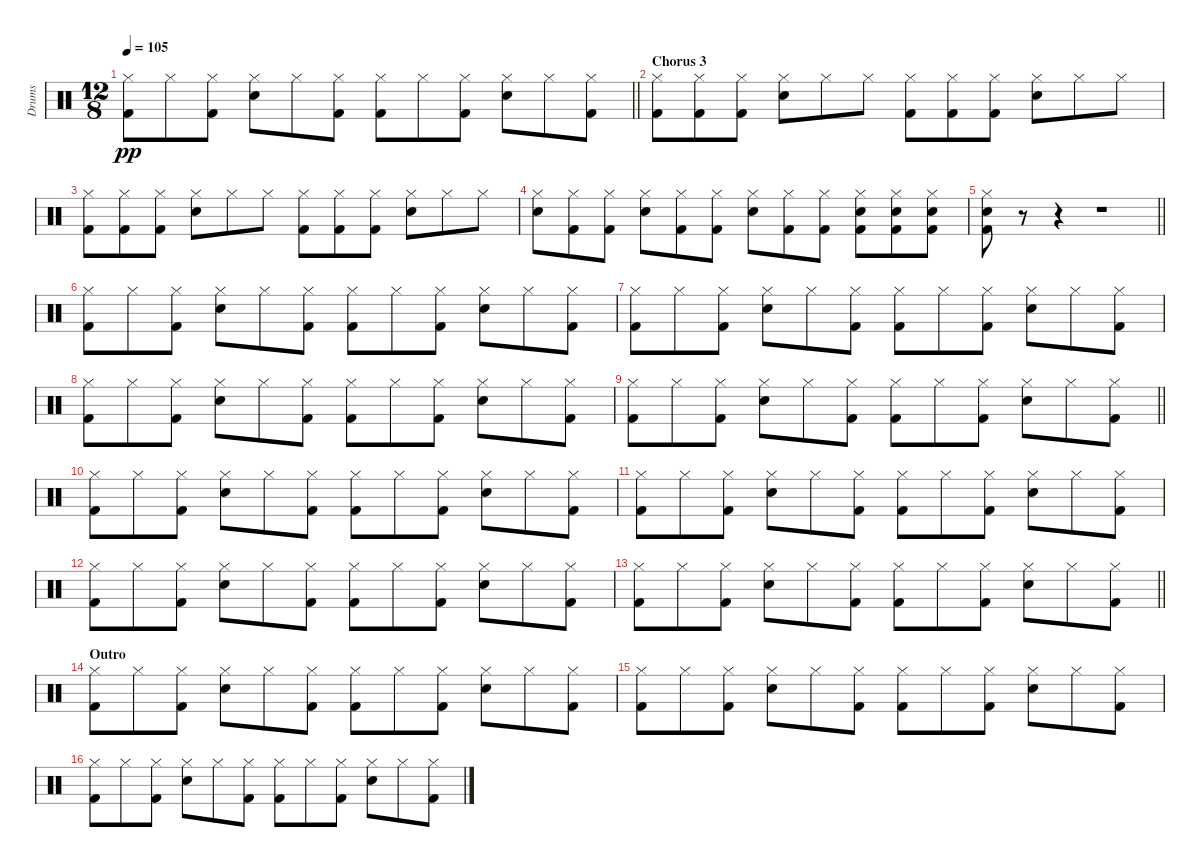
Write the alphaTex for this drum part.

\track ("Drums" "Drums") {instrument percussion}
\staff
\articulation defaults
\ts (12 8)
\tempo 105
\clef neutral
\barLineRight lightlight
\ks c
("Hi-Hat (closed)" "Kick (hit) 2").8{dy pp} "Hi-Hat (closed)".8 ("Hi-Hat (closed)" "Kick (hit) 2").8 ("Hi-Hat (closed)" "Snare (hit) 2").8 "Hi-Hat (closed)".8 ("Hi-Hat (closed)" "Kick (hit) 2").8 ("Hi-Hat (closed)" "Kick (hit) 2").8 "Hi-Hat (closed)".8 ("Hi-Hat (closed)" "Kick (hit) 2").8 ("Hi-Hat (closed)" "Snare (hit) 2").8 "Hi-Hat (closed)".8 ("Hi-Hat (closed)" "Kick (hit) 2").8 |
\section ("" "Chorus 3")
("Hi-Hat (closed)" "Kick (hit) 2").8 ("Hi-Hat (closed)" "Kick (hit) 2").8 ("Hi-Hat (closed)" "Kick (hit) 2").8 ("Hi-Hat (closed)" "Snare (hit) 2").8 "Hi-Hat (closed)".8 "Hi-Hat (closed)".8 ("Hi-Hat (closed)" "Kick (hit) 2").8 ("Hi-Hat (closed)" "Kick (hit) 2").8 ("Hi-Hat (closed)" "Kick (hit) 2").8 ("Hi-Hat (closed)" "Snare (hit) 2").8 "Hi-Hat (closed)".8 "Hi-Hat (closed)".8 |
("Hi-Hat (closed)" "Kick (hit) 2").8 ("Hi-Hat (closed)" "Kick (hit) 2").8 ("Hi-Hat (closed)" "Kick (hit) 2").8 ("Hi-Hat (closed)" "Snare (hit) 2").8 "Hi-Hat (closed)".8 "Hi-Hat (closed)".8 ("Hi-Hat (closed)" "Kick (hit) 2").8 ("Hi-Hat (closed)" "Kick (hit) 2").8 ("Hi-Hat (closed)" "Kick (hit) 2").8 ("Hi-Hat (closed)" "Snare (hit) 2").8 "Hi-Hat (closed)".8 "Hi-Hat (closed)".8 |
("Hi-Hat (closed)" "Snare (hit) 2").8 ("Hi-Hat (closed)" "Kick (hit) 2").8 ("Hi-Hat (closed)" "Kick (hit) 2").8 ("Hi-Hat (closed)" "Snare (hit) 2").8 ("Hi-Hat (closed)" "Kick (hit) 2").8 ("Hi-Hat (closed)" "Kick (hit) 2").8 ("Hi-Hat (closed)" "Snare (hit) 2").8 ("Hi-Hat (closed)" "Kick (hit) 2").8 ("Hi-Hat (closed)" "Kick (hit) 2").8 ("Hi-Hat (closed)" "Snare (hit) 2" "Kick (hit) 2").8 ("Hi-Hat (closed)" "Snare (hit) 2" "Kick (hit) 2").8 ("Hi-Hat (closed)" "Snare (hit) 2" "Kick (hit) 2").8 |
\barLineRight lightlight
("Hi-Hat (closed)" "Snare (hit) 2" "Kick (hit) 2").8 r.8 r.4 r.1 |
("Hi-Hat (closed)" "Kick (hit) 2").8 "Hi-Hat (closed)".8 ("Hi-Hat (closed)" "Kick (hit) 2").8 ("Hi-Hat (closed)" "Snare (hit) 2").8 "Hi-Hat (closed)".8 ("Hi-Hat (closed)" "Kick (hit) 2").8 ("Hi-Hat (closed)" "Kick (hit) 2").8 "Hi-Hat (closed)".8 ("Hi-Hat (closed)" "Kick (hit) 2").8 ("Hi-Hat (closed)" "Snare (hit) 2").8 "Hi-Hat (closed)".8 ("Hi-Hat (closed)" "Kick (hit) 2").8 |
("Hi-Hat (closed)" "Kick (hit) 2").8 "Hi-Hat (closed)".8 ("Hi-Hat (closed)" "Kick (hit) 2").8 ("Hi-Hat (closed)" "Snare (hit) 2").8 "Hi-Hat (closed)".8 ("Hi-Hat (closed)" "Kick (hit) 2").8 ("Hi-Hat (closed)" "Kick (hit) 2").8 "Hi-Hat (closed)".8 ("Hi-Hat (closed)" "Kick (hit) 2").8 ("Hi-Hat (closed)" "Snare (hit) 2").8 "Hi-Hat (closed)".8 ("Hi-Hat (closed)" "Kick (hit) 2").8 |
("Hi-Hat (closed)" "Kick (hit) 2").8 "Hi-Hat (closed)".8 ("Hi-Hat (closed)" "Kick (hit) 2").8 ("Hi-Hat (closed)" "Snare (hit) 2").8 "Hi-Hat (closed)".8 ("Hi-Hat (closed)" "Kick (hit) 2").8 ("Hi-Hat (closed)" "Kick (hit) 2").8 "Hi-Hat (closed)".8 ("Hi-Hat (closed)" "Kick (hit) 2").8 ("Hi-Hat (closed)" "Snare (hit) 2").8 "Hi-Hat (closed)".8 ("Hi-Hat (closed)" "Kick (hit) 2").8 |
\barLineRight lightlight
("Hi-Hat (closed)" "Kick (hit) 2").8 "Hi-Hat (closed)".8 ("Hi-Hat (closed)" "Kick (hit) 2").8 ("Hi-Hat (closed)" "Snare (hit) 2").8 "Hi-Hat (closed)".8 ("Hi-Hat (closed)" "Kick (hit) 2").8 ("Hi-Hat (closed)" "Kick (hit) 2").8 "Hi-Hat (closed)".8 ("Hi-Hat (closed)" "Kick (hit) 2").8 ("Hi-Hat (closed)" "Snare (hit) 2").8 "Hi-Hat (closed)".8 ("Hi-Hat (closed)" "Kick (hit) 2").8 |
("Hi-Hat (closed)" "Kick (hit) 2").8 "Hi-Hat (closed)".8 ("Hi-Hat (closed)" "Kick (hit) 2").8 ("Hi-Hat (closed)" "Snare (hit) 2").8 "Hi-Hat (closed)".8 ("Hi-Hat (closed)" "Kick (hit) 2").8 ("Hi-Hat (closed)" "Kick (hit) 2").8 "Hi-Hat (closed)".8 ("Hi-Hat (closed)" "Kick (hit) 2").8 ("Hi-Hat (closed)" "Snare (hit) 2").8 "Hi-Hat (closed)".8 ("Hi-Hat (closed)" "Kick (hit) 2").8 |
("Hi-Hat (closed)" "Kick (hit) 2").8 "Hi-Hat (closed)".8 ("Hi-Hat (closed)" "Kick (hit) 2").8 ("Hi-Hat (closed)" "Snare (hit) 2").8 "Hi-Hat (closed)".8 ("Hi-Hat (closed)" "Kick (hit) 2").8 ("Hi-Hat (closed)" "Kick (hit) 2").8 "Hi-Hat (closed)".8 ("Hi-Hat (closed)" "Kick (hit) 2").8 ("Hi-Hat (closed)" "Snare (hit) 2").8 "Hi-Hat (closed)".8 ("Hi-Hat (closed)" "Kick (hit) 2").8 |
("Hi-Hat (closed)" "Kick (hit) 2").8 "Hi-Hat (closed)".8 ("Hi-Hat (closed)" "Kick (hit) 2").8 ("Hi-Hat (closed)" "Snare (hit) 2").8 "Hi-Hat (closed)".8 ("Hi-Hat (closed)" "Kick (hit) 2").8 ("Hi-Hat (closed)" "Kick (hit) 2").8 "Hi-Hat (closed)".8 ("Hi-Hat (closed)" "Kick (hit) 2").8 ("Hi-Hat (closed)" "Snare (hit) 2").8 "Hi-Hat (closed)".8 ("Hi-Hat (closed)" "Kick (hit) 2").8 |
\barLineRight lightlight
("Hi-Hat (closed)" "Kick (hit) 2").8 "Hi-Hat (closed)".8 ("Hi-Hat (closed)" "Kick (hit) 2").8 ("Hi-Hat (closed)" "Snare (hit) 2").8 "Hi-Hat (closed)".8 ("Hi-Hat (closed)" "Kick (hit) 2").8 ("Hi-Hat (closed)" "Kick (hit) 2").8 "Hi-Hat (closed)".8 ("Hi-Hat (closed)" "Kick (hit) 2").8 ("Hi-Hat (closed)" "Snare (hit) 2").8 "Hi-Hat (closed)".8 ("Hi-Hat (closed)" "Kick (hit) 2").8 |
\section ("" "Outro")
("Hi-Hat (closed)" "Kick (hit) 2").8 "Hi-Hat (closed)".8 ("Hi-Hat (closed)" "Kick (hit) 2").8 ("Hi-Hat (closed)" "Snare (hit) 2").8 "Hi-Hat (closed)".8 ("Hi-Hat (closed)" "Kick (hit) 2").8 ("Hi-Hat (closed)" "Kick (hit) 2").8 "Hi-Hat (closed)".8 ("Hi-Hat (closed)" "Kick (hit) 2").8 ("Hi-Hat (closed)" "Snare (hit) 2").8 "Hi-Hat (closed)".8 ("Hi-Hat (closed)" "Kick (hit) 2").8 |
("Hi-Hat (closed)" "Kick (hit) 2").8 "Hi-Hat (closed)".8 ("Hi-Hat (closed)" "Kick (hit) 2").8 ("Hi-Hat (closed)" "Snare (hit) 2").8 "Hi-Hat (closed)".8 ("Hi-Hat (closed)" "Kick (hit) 2").8 ("Hi-Hat (closed)" "Kick (hit) 2").8 "Hi-Hat (closed)".8 ("Hi-Hat (closed)" "Kick (hit) 2").8 ("Hi-Hat (closed)" "Snare (hit) 2").8 "Hi-Hat (closed)".8 ("Hi-Hat (closed)" "Kick (hit) 2").8 |
("Hi-Hat (closed)" "Kick (hit) 2").8 "Hi-Hat (closed)".8 ("Hi-Hat (closed)" "Kick (hit) 2").8 ("Hi-Hat (closed)" "Snare (hit) 2").8 "Hi-Hat (closed)".8 ("Hi-Hat (closed)" "Kick (hit) 2").8 ("Hi-Hat (closed)" "Kick (hit) 2").8 "Hi-Hat (closed)".8 ("Hi-Hat (closed)" "Kick (hit) 2").8 ("Hi-Hat (closed)" "Snare (hit) 2").8 "Hi-Hat (closed)".8 ("Hi-Hat (closed)" "Kick (hit) 2").8
